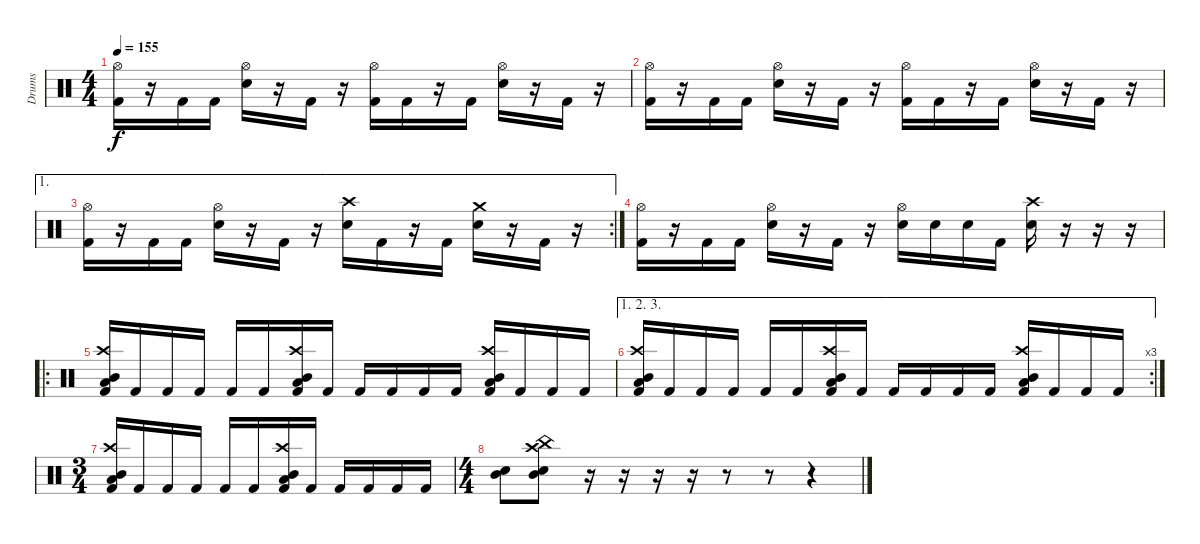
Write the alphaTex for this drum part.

\track ("Drums" "Drums") {instrument percussion}
\staff {score}
\articulation defaults
\ts (4 4)
\tempo 155
\clef neutral
\ks c
("Hi-Hat (open)" "Kick (hit) 2").16{dy f} r.16 "Kick (hit) 2".16 "Kick (hit) 2".16 ("Hi-Hat (open)" "Electric Snare (hit)").16 r.16 "Kick (hit) 2".16 r.16 ("Hi-Hat (open)" "Kick (hit) 2").16 "Kick (hit) 2".16 r.16 "Kick (hit) 2".16 ("Hi-Hat (open)" "Electric Snare (hit)").16 r.16 "Kick (hit) 2".16 r.16 |
("Hi-Hat (open)" "Kick (hit) 2").16 r.16 "Kick (hit) 2".16 "Kick (hit) 2".16 ("Hi-Hat (open)" "Electric Snare (hit)").16 r.16 "Kick (hit) 2".16 r.16 ("Hi-Hat (open)" "Kick (hit) 2").16 "Kick (hit) 2".16 r.16 "Kick (hit) 2".16 ("Hi-Hat (open)" "Electric Snare (hit)").16 r.16 "Kick (hit) 2".16 r.16 |
\ae 1
\rc 2
("Hi-Hat (open)" "Kick (hit) 2").16 r.16 "Kick (hit) 2".16 "Kick (hit) 2".16 ("Hi-Hat (open)" "Electric Snare (hit)").16 r.16 "Kick (hit) 2".16 r.16 ("Crash high (hit)" "Electric Snare (hit)").16 "Kick (hit) 2".16 r.16 "Kick (hit) 2".16 ("Crash medium (hit)" "Electric Snare (hit)").16 r.16 "Kick (hit) 2".16 r.16 |
("Hi-Hat (open)" "Kick (hit) 2").16 r.16 "Kick (hit) 2".16 "Kick (hit) 2".16 ("Hi-Hat (open)" "Electric Snare (hit)").16 r.16 "Kick (hit) 2".16 r.16 ("Hi-Hat (open)" "Electric Snare (hit)").16 "Electric Snare (hit)".16 "Electric Snare (hit)".16 "Kick (hit) 2".16 ("Crash high (hit)" "Electric Snare (hit)").16 r.16 r.16 r.16 |
\ro
("Crash high (hit)" "Low Tom (hit)" "Mid Tom (hit)" "Kick (hit) 2").16 "Kick (hit) 2".16 "Kick (hit) 2".16 "Kick (hit) 2".16 "Kick (hit) 2".16 "Kick (hit) 2".16 ("Mid Tom (hit)" "Crash high (hit)" "Low Tom (hit)" "Kick (hit) 2").16 "Kick (hit) 2".16 "Kick (hit) 2".16 "Kick (hit) 2".16 "Kick (hit) 2".16 "Kick (hit) 2".16 ("Low Tom (hit)" "Crash high (hit)" "Mid Tom (hit)" "Kick (hit) 2").16 "Kick (hit) 2".16 "Kick (hit) 2".16 "Kick (hit) 2".16 |
\ae (1 2 3)
\rc 3
("Crash high (hit)" "Low Tom (hit)" "Mid Tom (hit)" "Kick (hit) 2").16 "Kick (hit) 2".16 "Kick (hit) 2".16 "Kick (hit) 2".16 "Kick (hit) 2".16 "Kick (hit) 2".16 ("Mid Tom (hit)" "Crash high (hit)" "Low Tom (hit)" "Kick (hit) 2").16 "Kick (hit) 2".16 "Kick (hit) 2".16 "Kick (hit) 2".16 "Kick (hit) 2".16 "Kick (hit) 2".16 ("Low Tom (hit)" "Crash high (hit)" "Mid Tom (hit)" "Kick (hit) 2").16 "Kick (hit) 2".16 "Kick (hit) 2".16 "Kick (hit) 2".16 |
\ts (3 4)
("Crash high (hit)" "Low Tom (hit)" "Mid Tom (hit)" "Kick (hit) 2").16 "Kick (hit) 2".16 "Kick (hit) 2".16 "Kick (hit) 2".16 "Kick (hit) 2".16 "Kick (hit) 2".16 ("Crash high (hit)" "Mid Tom (hit)" "Low Tom (hit)" "Kick (hit) 2").16 "Kick (hit) 2".16 "Kick (hit) 2".16 "Kick (hit) 2".16 "Kick (hit) 2".16 "Kick (hit) 2".16 |
\ts (4 4)
("Mid Tom (hit)" "Electric Snare (hit)").8 ("China (hit)" "Crash high (hit)" "Mid Tom (hit)" "Electric Snare (hit)").8 r.16 r.16 r.16 r.16 r.8 r.8 r.4
